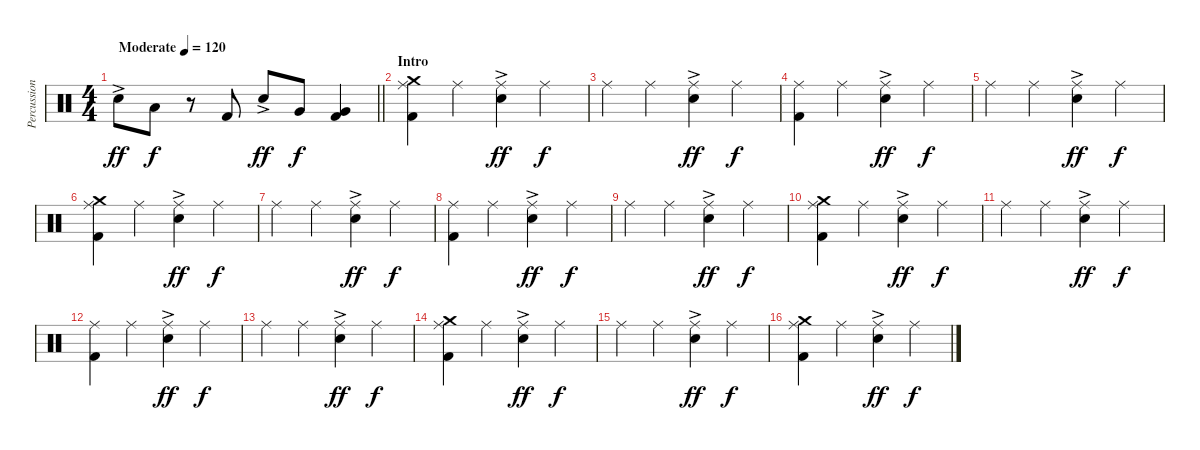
\track ("Percussion" "Percussion") {instrument percussion}
\staff {score}
\articulation defaults
\ts (4 4)
\tempo (120 "Moderate")
\clef neutral
\barLineRight lightlight
\ks c "Electric Snare (hit)"{ac}.8{dy ff} "Low Tom (hit)".8{dy f}
r.8 "Kick (hit) 2".8 "Electric Snare (hit)"{ac}.8{dy ff} "Very Low Tom (hit)".8{dy f} ("Very Low Tom (hit)" "Kick (hit) 2").4 |
\section ("" "Intro")
("Crash medium (hit)" "Ride (middle)" "Kick (hit) 2").4 "Ride (middle)".4 ("Ride (middle)" "Electric Snare (hit)"{ac}).4{dy ff} "Ride (middle)".4{dy f} |
"Ride (middle)".4 "Ride (middle)".4 ("Ride (middle)" "Electric Snare (hit)"{ac}).4{dy ff} "Ride (middle)".4{dy f} |
("Ride (middle)" "Kick (hit) 2").4 "Ride (middle)".4 ("Ride (middle)" "Electric Snare (hit)"{ac}).4{dy ff} "Ride (middle)".4{dy f} |
"Ride (middle)".4 "Ride (middle)".4 ("Ride (middle)" "Electric Snare (hit)"{ac}).4{dy ff} "Ride (middle)".4{dy f} |
("Crash medium (hit)" "Ride (middle)" "Kick (hit) 2").4 "Ride (middle)".4 ("Ride (middle)" "Electric Snare (hit)"{ac}).4{dy ff} "Ride (middle)".4{dy f} |
"Ride (middle)".4 "Ride (middle)".4 ("Ride (middle)" "Electric Snare (hit)"{ac}).4{dy ff} "Ride (middle)".4{dy f} |
("Ride (middle)" "Kick (hit) 2").4 "Ride (middle)".4 ("Ride (middle)" "Electric Snare (hit)"{ac}).4{dy ff} "Ride (middle)".4{dy f} |
"Ride (middle)".4 "Ride (middle)".4 ("Ride (middle)" "Electric Snare (hit)"{ac}).4{dy ff} "Ride (middle)".4{dy f} |
("Crash medium (hit)" "Ride (middle)" "Kick (hit) 2").4 "Ride (middle)".4 ("Ride (middle)" "Electric Snare (hit)"{ac}).4{dy ff} "Ride (middle)".4{dy f} |
"Ride (middle)".4 "Ride (middle)".4 ("Ride (middle)" "Electric Snare (hit)"{ac}).4{dy ff} "Ride (middle)".4{dy f} |
("Ride (middle)" "Kick (hit) 2").4 "Ride (middle)".4 ("Ride (middle)" "Electric Snare (hit)"{ac}).4{dy ff} "Ride (middle)".4{dy f} |
"Ride (middle)".4 "Ride (middle)".4 ("Ride (middle)" "Electric Snare (hit)"{ac}).4{dy ff} "Ride (middle)".4{dy f} |
("Crash medium (hit)" "Ride (middle)" "Kick (hit) 2").4 "Ride (middle)".4 ("Ride (middle)" "Electric Snare (hit)"{ac}).4{dy ff} "Ride (middle)".4{dy f} |
"Ride (middle)".4 "Ride (middle)".4 ("Ride (middle)" "Electric Snare (hit)"{ac}).4{dy ff} "Ride (middle)".4{dy f} |
("Crash medium (hit)" "Ride (middle)" "Kick (hit) 2").4 "Ride (middle)".4 ("Ride (middle)" "Electric Snare (hit)"{ac}).4{dy ff} "Ride (middle)".4{dy f}
